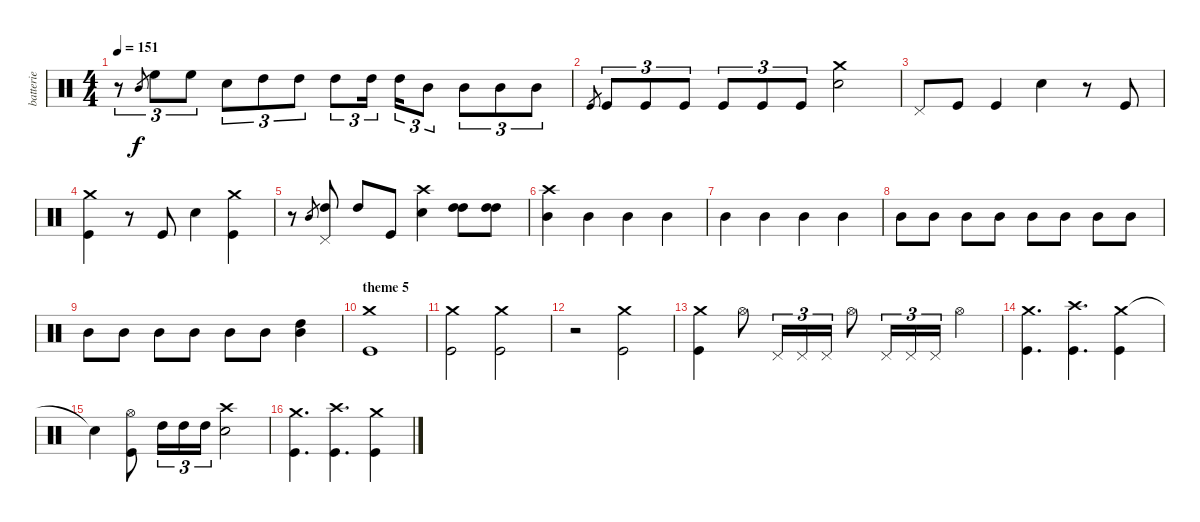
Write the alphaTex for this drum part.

\track ("batterie" "batterie") {instrument percussion}
\staff {score}
\articulation defaults
\ts (4 4)
\tempo 151
\clef neutral
\ks c
r.8{tu (3 2) dy f} "Mid Tom (hit)".8{gr} "High Floor Tom (hit)".8{tu (3 2)} "High Floor Tom (hit)".8{tu (3 2)} "Snare (hit) 2".8{tu (3 2)} "High Tom (hit)".8{tu (3 2)} "High Tom (hit)".8{tu (3 2)} "High Tom (hit)".8{tu (3 2)} "High Tom (hit)".16{tu (3 2)} "High Tom (hit)".16{tu (3 2)} "Mid Tom (hit)".8{tu (3 2)} "Mid Tom (hit)".8{tu (3 2)} "Mid Tom (hit)".8{tu (3 2)} "Mid Tom (hit)".8{tu (3 2)} |
"Kick (hit)".8{gr} "Kick (hit)".8{tu (3 2)} "Kick (hit)".8{tu (3 2)} "Kick (hit)".8{tu (3 2)} "Kick (hit)".8{tu (3 2)} "Kick (hit)".8{tu (3 2)} "Kick (hit)".8{tu (3 2)} ("Crash medium (hit)" "Snare (hit) 2").2 |
"Pedal Hi-Hat (hit)".8 "Kick (hit)".8 "Kick (hit)".4 "Snare (hit) 2".4 r.8 "Kick (hit)".8 |
("Crash medium (hit)" "Kick (hit)").4 r.8 "Kick (hit)".8 "Snare (hit) 2".4 ("Crash medium (hit)" "Kick (hit)").4 |
r.8 "Mid Tom (hit)".8{gr} ("Pedal Hi-Hat (hit)" "High Tom (hit)").8 "High Tom (hit)".8 "Kick (hit)".8 ("Crash high (hit)" "Snare (hit) 2").4 ("High Tom (hit)" "High Tom (hit)").8 ("High Tom (hit)" "High Tom (hit)").8 |
("Crash high (hit)" "Mid Tom (hit)").4 "Mid Tom (hit)".4 "Mid Tom (hit)".4 "Mid Tom (hit)".4 |
"Mid Tom (hit)".4 "Mid Tom (hit)".4 "Mid Tom (hit)".4 "Mid Tom (hit)".4 |
"Mid Tom (hit)".8 "Mid Tom (hit)".8 "Mid Tom (hit)".8 "Mid Tom (hit)".8 "Mid Tom (hit)".8 "Mid Tom (hit)".8 "Mid Tom (hit)".8 "Mid Tom (hit)".8 |
"Mid Tom (hit)".8 "Mid Tom (hit)".8 "Mid Tom (hit)".8 "Mid Tom (hit)".8 "Mid Tom (hit)".8 "Mid Tom (hit)".8 ("High Tom (hit)" "Mid Tom (hit)").4 |
\section ("" "theme 5")
("Crash medium (hit)" "Kick (hit)").1 |
("Crash medium (hit)" "Kick (hit)").2 ("Crash medium (hit)" "Kick (hit)").2 |
r.2 ("Crash medium (hit)" "Kick (hit)").2 |
("Crash medium (hit)" "Kick (hit)").4 "Hi-Hat (open)".8 "Pedal Hi-Hat (hit)".16{tu (3 2)} "Pedal Hi-Hat (hit)".16{tu (3 2)} "Pedal Hi-Hat (hit)".16{tu (3 2)} "Hi-Hat (open)".8 "Pedal Hi-Hat (hit)".16{tu (3 2)} "Pedal Hi-Hat (hit)".16{tu (3 2)} "Pedal Hi-Hat (hit)".16{tu (3 2)} "Hi-Hat (open)".4 |
("Crash medium (hit)" "Kick (hit)").4{d} ("Crash high (hit)" "Kick (hit)").4{d} ("Crash medium (hit)" "Kick (hit)").4 |
"Snare (hit)"{t}.4 ("Hi-Hat (open)" "Kick (hit)").8 "High Tom (hit)".16{tu (3 2)} "High Tom (hit)".16{tu (3 2)} "High Tom (hit)".16{tu (3 2)} ("Crash high (hit)" "Snare (hit) 2").2 |
("Crash medium (hit)" "Kick (hit)").4{d} ("Crash high (hit)" "Kick (hit)").4{d} ("Crash medium (hit)" "Kick (hit)").4
